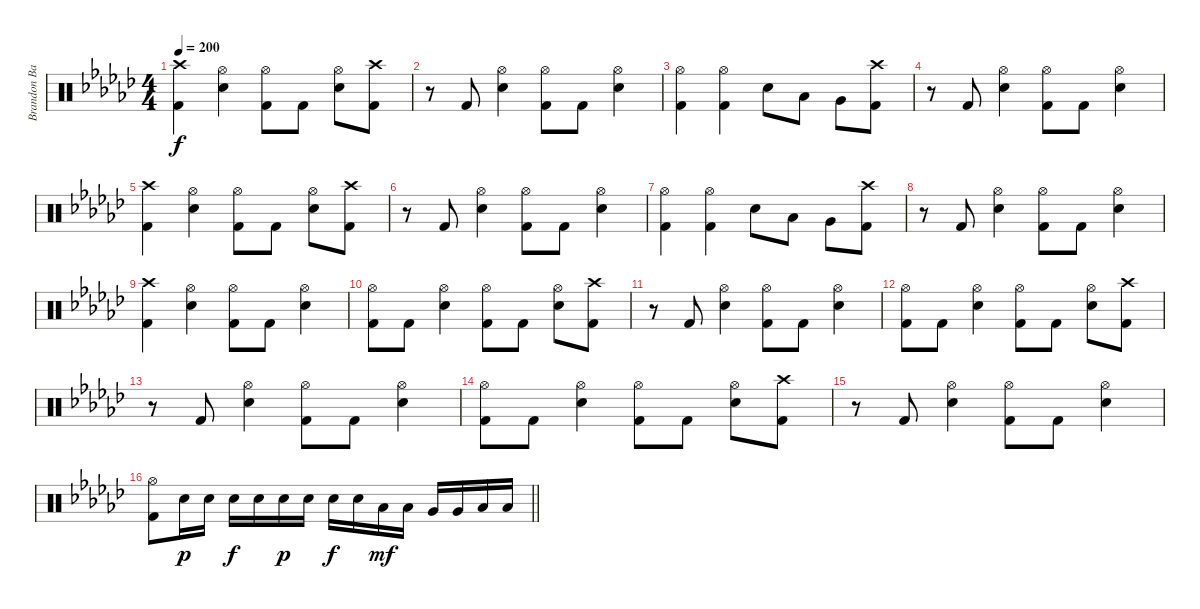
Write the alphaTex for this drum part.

\track ("Brandon Barnes - Drums" "Brandon Ba") {instrument percussion}
\staff {score}
\articulation defaults
\ts (4 4)
\tempo 200
\clef neutral
\ks ebminor
("Crash high (hit)" "Kick (hit) 2").4{dy f} ("Hi-Hat (open)" "Electric Snare (hit)").4 ("Hi-Hat (open)" "Kick (hit) 2").8 "Kick (hit) 2".8 ("Hi-Hat (open)" "Electric Snare (hit)").8 ("Crash high (hit)" "Kick (hit) 2").8 |
r.8 "Kick (hit) 2".8 ("Hi-Hat (open)" "Electric Snare (hit)").4 ("Hi-Hat (open)" "Kick (hit) 2").8 "Kick (hit) 2".8 ("Hi-Hat (open)" "Electric Snare (hit)").4 |
("Hi-Hat (open)" "Kick (hit) 2").4 ("Hi-Hat (open)" "Kick (hit) 2").4 "Electric Snare (hit)".8 "Low Tom (hit)".8 "Very Low Tom (hit)".8 ("Crash high (hit)" "Kick (hit) 2").8 |
r.8 "Kick (hit) 2".8 ("Hi-Hat (open)" "Electric Snare (hit)").4 ("Hi-Hat (open)" "Kick (hit) 2").8 "Kick (hit) 2".8 ("Hi-Hat (open)" "Electric Snare (hit)").4 |
("Crash high (hit)" "Kick (hit) 2").4 ("Hi-Hat (open)" "Electric Snare (hit)").4 ("Hi-Hat (open)" "Kick (hit) 2").8 "Kick (hit) 2".8 ("Hi-Hat (open)" "Electric Snare (hit)").8 ("Crash high (hit)" "Kick (hit) 2").8 |
r.8 "Kick (hit) 2".8 ("Hi-Hat (open)" "Electric Snare (hit)").4 ("Hi-Hat (open)" "Kick (hit) 2").8 "Kick (hit) 2".8 ("Hi-Hat (open)" "Electric Snare (hit)").4 |
("Hi-Hat (open)" "Kick (hit) 2").4 ("Hi-Hat (open)" "Kick (hit) 2").4 "Electric Snare (hit)".8 "Low Tom (hit)".8 "Very Low Tom (hit)".8 ("Crash high (hit)" "Kick (hit) 2").8 |
r.8 "Kick (hit) 2".8 ("Hi-Hat (open)" "Electric Snare (hit)").4 ("Hi-Hat (open)" "Kick (hit) 2").8 "Kick (hit) 2".8 ("Hi-Hat (open)" "Electric Snare (hit)").4 |
("Crash high (hit)" "Kick (hit) 2").4 ("Hi-Hat (open)" "Electric Snare (hit)").4 ("Hi-Hat (open)" "Kick (hit) 2").8 "Kick (hit) 2".8 ("Hi-Hat (open)" "Electric Snare (hit)").4 |
("Hi-Hat (open)" "Kick (hit) 2").8 "Kick (hit) 2".8 ("Hi-Hat (open)" "Electric Snare (hit)").4 ("Hi-Hat (open)" "Kick (hit) 2").8 "Kick (hit) 2".8 ("Hi-Hat (open)" "Electric Snare (hit)").8 ("Crash high (hit)" "Kick (hit) 2").8 |
r.8 "Kick (hit) 2".8 ("Hi-Hat (open)" "Electric Snare (hit)").4 ("Hi-Hat (open)" "Kick (hit) 2").8 "Kick (hit) 2".8 ("Hi-Hat (open)" "Electric Snare (hit)").4 |
("Hi-Hat (open)" "Kick (hit) 2").8 "Kick (hit) 2".8 ("Hi-Hat (open)" "Electric Snare (hit)").4 ("Hi-Hat (open)" "Kick (hit) 2").8 "Kick (hit) 2".8 ("Hi-Hat (open)" "Electric Snare (hit)").8 ("Crash high (hit)" "Kick (hit) 2").8 |
r.8 "Kick (hit) 2".8 ("Hi-Hat (open)" "Electric Snare (hit)").4 ("Hi-Hat (open)" "Kick (hit) 2").8 "Kick (hit) 2".8 ("Hi-Hat (open)" "Electric Snare (hit)").4 |
("Hi-Hat (open)" "Kick (hit) 2").8 "Kick (hit) 2".8 ("Hi-Hat (open)" "Electric Snare (hit)").4 ("Hi-Hat (open)" "Kick (hit) 2").8 "Kick (hit) 2".8 ("Hi-Hat (open)" "Electric Snare (hit)").8 ("Crash high (hit)" "Kick (hit) 2").8 |
r.8 "Kick (hit) 2".8 ("Hi-Hat (open)" "Electric Snare (hit)").4 ("Hi-Hat (open)" "Kick (hit) 2").8 "Kick (hit) 2".8 ("Hi-Hat (open)" "Electric Snare (hit)").4 |
\barLineRight lightlight
("Hi-Hat (open)" "Kick (hit) 2").8 "Snare (hit) 2".16{dy p} "Snare (hit) 2".16 "Snare (hit) 2".16{dy f} "Snare (hit) 2".16 "Snare (hit) 2".16{dy p} "Snare (hit) 2".16 "Snare (hit) 2".16{dy f} "Snare (hit) 2".16 "Low Tom (hit)".16{dy mf} "Low Tom (hit)".16 "Very Low Tom (hit)".16 "Very Low Tom (hit)".16 "Low Floor Tom (hit)".16 "Low Floor Tom (hit)".16
